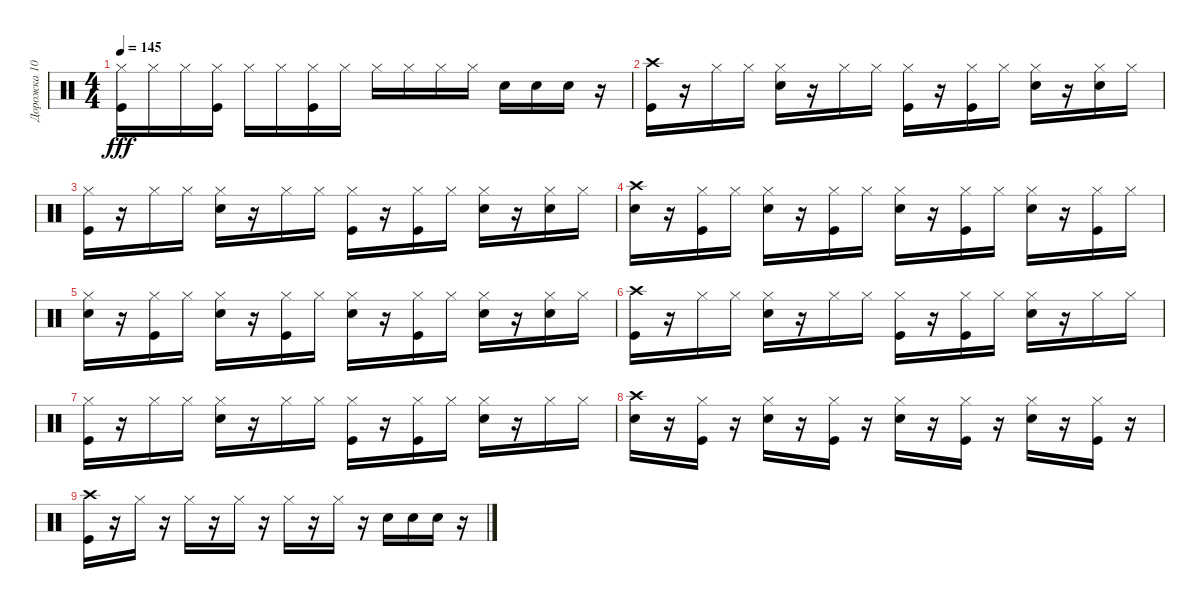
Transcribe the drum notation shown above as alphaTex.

\track ("Дорожка 10" "Дорожка 10") {instrument percussion}
\staff {score}
\articulation defaults
\ts (4 4)
\tempo 145
\clef neutral
\ks c
("Kick (hit)" "Hi-Hat (closed)").16{dy fff} "Hi-Hat (closed)".16 "Hi-Hat (closed)".16 ("Hi-Hat (closed)" "Kick (hit)").16 "Hi-Hat (closed)".16 "Hi-Hat (closed)".16 ("Hi-Hat (closed)" "Kick (hit)").16 "Hi-Hat (closed)".16 "Hi-Hat (closed)".16 "Hi-Hat (closed)".16 "Hi-Hat (closed)".16 "Hi-Hat (closed)".16 "Electric Snare (hit)".16 "Electric Snare (hit)".16 "Electric Snare (hit)".16 r.16 |
("Crash high (hit)" "Kick (hit)").16 r.16 "Hi-Hat (closed)".16 "Hi-Hat (closed)".16 ("Electric Snare (hit)" "Hi-Hat (closed)").16 r.16 "Hi-Hat (closed)".16 "Hi-Hat (closed)".16 ("Hi-Hat (closed)" "Kick (hit)").16 r.16 ("Hi-Hat (closed)" "Kick (hit)").16 "Hi-Hat (closed)".16 ("Electric Snare (hit)" "Hi-Hat (closed)").16 r.16 ("Electric Snare (hit)" "Hi-Hat (closed)").16 "Hi-Hat (closed)".16 |
("Hi-Hat (closed)" "Kick (hit)").16 r.16 "Hi-Hat (closed)".16 "Hi-Hat (closed)".16 ("Hi-Hat (closed)" "Electric Snare (hit)").16 r.16 "Hi-Hat (closed)".16 "Hi-Hat (closed)".16 ("Hi-Hat (closed)" "Kick (hit)").16 r.16 ("Hi-Hat (closed)" "Kick (hit)").16 "Hi-Hat (closed)".16 ("Electric Snare (hit)" "Hi-Hat (closed)").16 r.16 ("Hi-Hat (closed)" "Electric Snare (hit)").16 "Hi-Hat (closed)".16 |
("Crash high (hit)" "Electric Snare (hit)").16 r.16 ("Hi-Hat (closed)" "Kick (hit)").16 "Hi-Hat (closed)".16 ("Electric Snare (hit)" "Hi-Hat (closed)").16 r.16 ("Kick (hit)" "Hi-Hat (closed)").16 "Hi-Hat (closed)".16 ("Electric Snare (hit)" "Hi-Hat (closed)").16 r.16 ("Hi-Hat (closed)" "Kick (hit)").16 "Hi-Hat (closed)".16 ("Hi-Hat (closed)" "Electric Snare (hit)").16 r.16 ("Kick (hit)" "Hi-Hat (closed)").16 "Hi-Hat (closed)".16 |
("Hi-Hat (closed)" "Electric Snare (hit)").16 r.16 ("Kick (hit)" "Hi-Hat (closed)").16 "Hi-Hat (closed)".16 ("Electric Snare (hit)" "Hi-Hat (closed)").16 r.16 ("Hi-Hat (closed)" "Kick (hit)").16 "Hi-Hat (closed)".16 ("Electric Snare (hit)" "Hi-Hat (closed)").16 r.16 ("Kick (hit)" "Hi-Hat (closed)").16 "Hi-Hat (closed)".16 ("Hi-Hat (closed)" "Electric Snare (hit)").16 r.16 ("Hi-Hat (closed)" "Electric Snare (hit)").16 "Hi-Hat (closed)".16 |
("Kick (hit)" "Crash high (hit)").16 r.16 "Hi-Hat (closed)".16 "Hi-Hat (closed)".16 ("Hi-Hat (closed)" "Electric Snare (hit)").16 r.16 "Hi-Hat (closed)".16 "Hi-Hat (closed)".16 ("Kick (hit)" "Hi-Hat (closed)").16 r.16 ("Kick (hit)" "Hi-Hat (closed)").16 "Hi-Hat (closed)".16 ("Electric Snare (hit)" "Hi-Hat (closed)").16 r.16 "Hi-Hat (closed)".16 "Hi-Hat (closed)".16 |
("Kick (hit)" "Hi-Hat (closed)").16 r.16 "Hi-Hat (closed)".16 "Hi-Hat (closed)".16 ("Hi-Hat (closed)" "Electric Snare (hit)").16 r.16 "Hi-Hat (closed)".16 "Hi-Hat (closed)".16 ("Hi-Hat (closed)" "Kick (hit)").16 r.16 ("Kick (hit)" "Hi-Hat (closed)").16 "Hi-Hat (closed)".16 ("Electric Snare (hit)" "Hi-Hat (closed)").16 r.16 "Hi-Hat (closed)".16 "Hi-Hat (closed)".16 |
("Crash high (hit)" "Electric Snare (hit)").16 r.16 ("Kick (hit)" "Hi-Hat (closed)").16 r.16 ("Electric Snare (hit)" "Hi-Hat (closed)").16 r.16 ("Kick (hit)" "Hi-Hat (closed)").16 r.16 ("Electric Snare (hit)" "Hi-Hat (closed)").16 r.16 ("Hi-Hat (closed)" "Kick (hit)").16 r.16 ("Electric Snare (hit)" "Hi-Hat (closed)").16 r.16 ("Hi-Hat (closed)" "Kick (hit)").16 r.16 |
("Crash high (hit)" "Kick (hit)").16 r.16 "Hi-Hat (closed)".16 r.16 "Hi-Hat (closed)".16 r.16 "Hi-Hat (closed)".16 r.16 "Hi-Hat (closed)".16 r.16 "Hi-Hat (closed)".16 r.16 "Electric Snare (hit)".16 "Electric Snare (hit)".16 "Electric Snare (hit)".16 r.16
